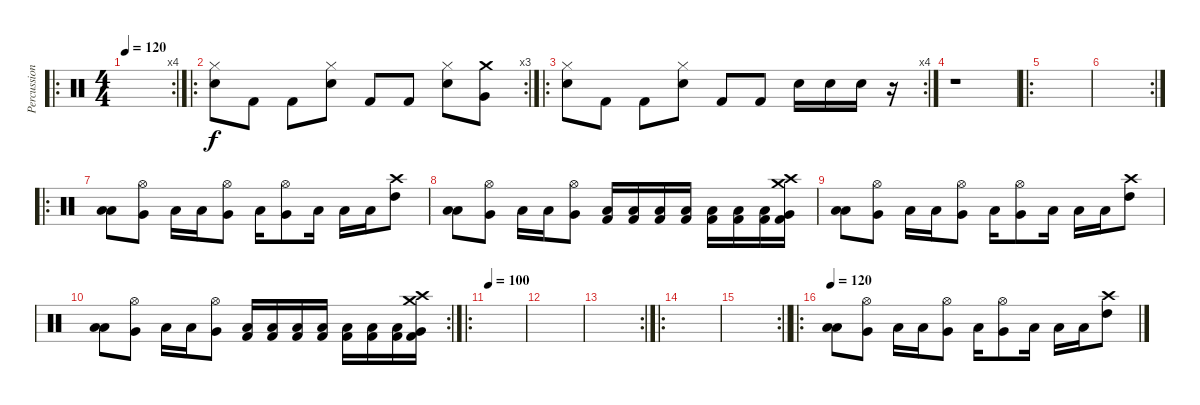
\track ("Percussion" "Percussion") {instrument percussion}
\staff {score}
\articulation defaults
\ro
\rc 4
\ts (4 4)
\tempo 120
\clef neutral
\ks c
|
\ro
\rc 3
("Hi-Hat (closed)" "Snare (hit) 2").8 "Kick (hit) 2".8 "Kick (hit) 2".8 ("Hi-Hat (closed)" "Snare (hit) 2").8 "Kick (hit) 2".8 "Kick (hit) 2".8 ("Hi-Hat (closed)" "Snare (hit) 2").8 ("Crash medium (hit)" "Very Low Tom (hit)").8 |
\ro
\rc 4
("Hi-Hat (closed)" "Snare (hit) 2").8 "Kick (hit) 2".8 "Kick (hit) 2".8 ("Hi-Hat (closed)" "Snare (hit) 2").8 "Kick (hit) 2".8 "Kick (hit) 2".8 "Electric Snare (hit)".16 "Electric Snare (hit)".16 "Electric Snare (hit)".16 r.16 |
r.1 |
\ro
|
\rc 2
|
\ro
("Low Floor Tom (hit)" "Low Floor Tom (hit)").8 ("Very Low Tom (hit)" "Hi-Hat (open)").8 "Low Floor Tom (hit)".16 "Low Floor Tom (hit)".16 ("Very Low Tom (hit)" "Hi-Hat (open)").8 "Low Floor Tom (hit)".16 ("Very Low Tom (hit)" "Hi-Hat (open)").8 "Low Floor Tom (hit)".16 "Low Floor Tom (hit)".16 "Low Floor Tom (hit)".16 ("Crash high (hit)" "High Tom (hit)").8 |
("Low Floor Tom (hit)" "Low Floor Tom (hit)").8 ("Very Low Tom (hit)" "Hi-Hat (open)").8 "Low Floor Tom (hit)".16 "Low Floor Tom (hit)".16 ("Very Low Tom (hit)" "Hi-Hat (open)").8 ("Low Floor Tom (hit)" "Kick (hit) 2").16 ("Low Floor Tom (hit)" "Kick (hit) 2").16 ("Low Floor Tom (hit)" "Kick (hit) 2").16 ("Low Floor Tom (hit)" "Kick (hit) 2").16 ("Low Floor Tom (hit)" "Kick (hit) 2").16 ("Low Floor Tom (hit)" "Kick (hit) 2").16 ("Low Floor Tom (hit)" "Kick (hit) 2").16 ("Very Low Tom (hit)" "Kick (hit) 2" "Crash high (hit)" "Crash medium (hit)").16 |
("Low Floor Tom (hit)" "Low Floor Tom (hit)").8 ("Very Low Tom (hit)" "Hi-Hat (open)").8 "Low Floor Tom (hit)".16 "Low Floor Tom (hit)".16 ("Very Low Tom (hit)" "Hi-Hat (open)").8 "Low Floor Tom (hit)".16 ("Very Low Tom (hit)" "Hi-Hat (open)").8 "Low Floor Tom (hit)".16 "Low Floor Tom (hit)".16 "Low Floor Tom (hit)".16 ("Crash high (hit)" "High Tom (hit)").8 |
\rc 2
("Low Floor Tom (hit)" "Low Floor Tom (hit)").8 ("Very Low Tom (hit)" "Hi-Hat (open)").8 "Low Floor Tom (hit)".16 "Low Floor Tom (hit)".16 ("Very Low Tom (hit)" "Hi-Hat (open)").8 ("Low Floor Tom (hit)" "Kick (hit) 2").16 ("Low Floor Tom (hit)" "Kick (hit) 2").16 ("Low Floor Tom (hit)" "Kick (hit) 2").16 ("Low Floor Tom (hit)" "Kick (hit) 2").16 ("Low Floor Tom (hit)" "Kick (hit) 2").16 ("Low Floor Tom (hit)" "Kick (hit) 2").16 ("Low Floor Tom (hit)" "Kick (hit) 2").16 ("Very Low Tom (hit)" "Kick (hit) 2" "Crash high (hit)" "Crash medium (hit)").16 |
\ro
\tempo 100
|
|
\rc 2
|
\ro
|
\rc 2
\barLineRight lightlight
|
\ro
\tempo 120
("Low Floor Tom (hit)" "Low Floor Tom (hit)").8 ("Very Low Tom (hit)" "Hi-Hat (open)").8 "Low Floor Tom (hit)".16 "Low Floor Tom (hit)".16 ("Very Low Tom (hit)" "Hi-Hat (open)").8 "Low Floor Tom (hit)".16 ("Very Low Tom (hit)" "Hi-Hat (open)").8 "Low Floor Tom (hit)".16 "Low Floor Tom (hit)".16 "Low Floor Tom (hit)".16 ("Crash high (hit)" "High Tom (hit)").8
